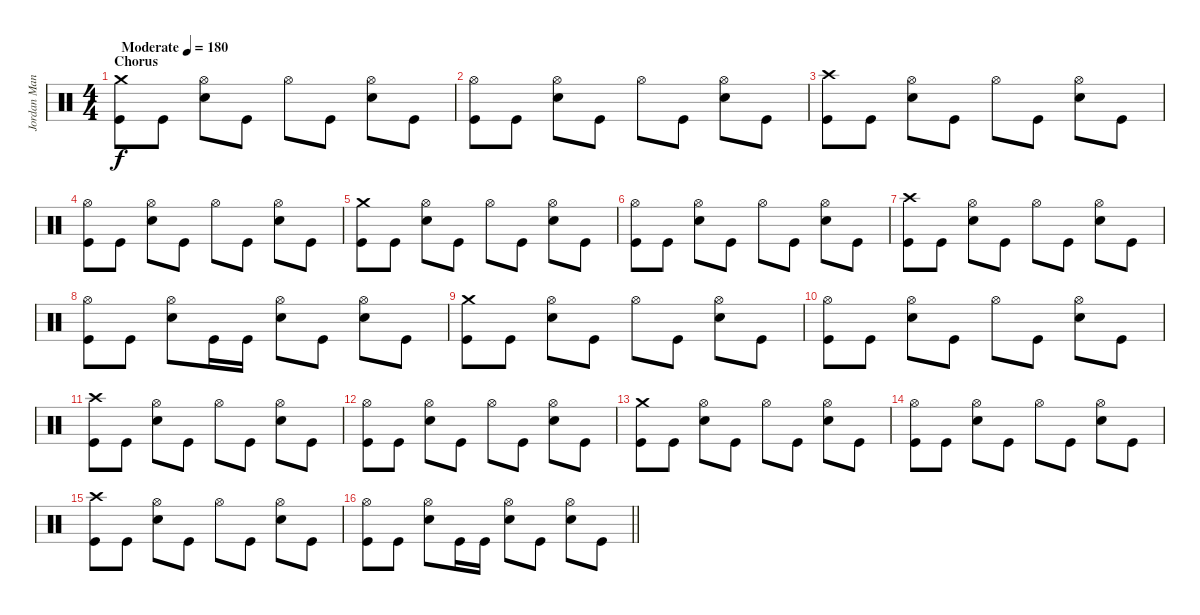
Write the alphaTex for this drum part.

\track ("Jordan Mancino" "Jordan Man") {instrument percussion}
\staff {score}
\articulation defaults
\ts (4 4)
\section ("" "Chorus")
\tempo (180 "Moderate")
\clef neutral
\ks c
("Crash medium (hit)" "Kick (hit)").8{dy f} "Kick (hit)".8 ("Hi-Hat (open)" "Snare (hit) 2").8 "Kick (hit)".8 "Hi-Hat (open)".8 "Kick (hit)".8 ("Hi-Hat (open)" "Snare (hit) 2").8 "Kick (hit)".8 |
("Hi-Hat (open)" "Kick (hit)").8 "Kick (hit)".8 ("Hi-Hat (open)" "Snare (hit) 2").8 "Kick (hit)".8 "Hi-Hat (open)".8 "Kick (hit)".8 ("Hi-Hat (open)" "Snare (hit) 2").8 "Kick (hit)".8 |
("Crash high (hit)" "Kick (hit)").8 "Kick (hit)".8 ("Hi-Hat (open)" "Snare (hit) 2").8 "Kick (hit)".8 "Hi-Hat (open)".8 "Kick (hit)".8 ("Hi-Hat (open)" "Snare (hit) 2").8 "Kick (hit)".8 |
("Hi-Hat (open)" "Kick (hit)").8 "Kick (hit)".8 ("Hi-Hat (open)" "Snare (hit) 2").8 "Kick (hit)".8 "Hi-Hat (open)".8 "Kick (hit)".8 ("Hi-Hat (open)" "Snare (hit) 2").8 "Kick (hit)".8 |
("Crash medium (hit)" "Kick (hit)").8 "Kick (hit)".8 ("Hi-Hat (open)" "Snare (hit) 2").8 "Kick (hit)".8 "Hi-Hat (open)".8 "Kick (hit)".8 ("Hi-Hat (open)" "Snare (hit) 2").8 "Kick (hit)".8 |
("Hi-Hat (open)" "Kick (hit)").8 "Kick (hit)".8 ("Hi-Hat (open)" "Snare (hit) 2").8 "Kick (hit)".8 "Hi-Hat (open)".8 "Kick (hit)".8 ("Hi-Hat (open)" "Snare (hit) 2").8 "Kick (hit)".8 |
("Crash high (hit)" "Kick (hit)").8 "Kick (hit)".8 ("Hi-Hat (open)" "Snare (hit) 2").8 "Kick (hit)".8 "Hi-Hat (open)".8 "Kick (hit)".8 ("Hi-Hat (open)" "Snare (hit) 2").8 "Kick (hit)".8 |
("Hi-Hat (open)" "Kick (hit)").8 "Kick (hit)".8 ("Hi-Hat (open)" "Snare (hit) 2").8 "Kick (hit)".16 "Kick (hit)".16 ("Hi-Hat (open)" "Snare (hit) 2").8 "Kick (hit)".8 ("Hi-Hat (open)" "Snare (hit) 2").8 "Kick (hit)".8 |
("Crash medium (hit)" "Kick (hit)").8 "Kick (hit)".8 ("Hi-Hat (open)" "Snare (hit) 2").8 "Kick (hit)".8 "Hi-Hat (open)".8 "Kick (hit)".8 ("Hi-Hat (open)" "Snare (hit) 2").8 "Kick (hit)".8 |
("Hi-Hat (open)" "Kick (hit)").8 "Kick (hit)".8 ("Hi-Hat (open)" "Snare (hit) 2").8 "Kick (hit)".8 "Hi-Hat (open)".8 "Kick (hit)".8 ("Hi-Hat (open)" "Snare (hit) 2").8 "Kick (hit)".8 |
("Crash high (hit)" "Kick (hit)").8 "Kick (hit)".8 ("Hi-Hat (open)" "Snare (hit) 2").8 "Kick (hit)".8 "Hi-Hat (open)".8 "Kick (hit)".8 ("Hi-Hat (open)" "Snare (hit) 2").8 "Kick (hit)".8 |
("Hi-Hat (open)" "Kick (hit)").8 "Kick (hit)".8 ("Hi-Hat (open)" "Snare (hit) 2").8 "Kick (hit)".8 "Hi-Hat (open)".8 "Kick (hit)".8 ("Hi-Hat (open)" "Snare (hit) 2").8 "Kick (hit)".8 |
("Crash medium (hit)" "Kick (hit)").8 "Kick (hit)".8 ("Hi-Hat (open)" "Snare (hit) 2").8 "Kick (hit)".8 "Hi-Hat (open)".8 "Kick (hit)".8 ("Hi-Hat (open)" "Snare (hit) 2").8 "Kick (hit)".8 |
("Hi-Hat (open)" "Kick (hit)").8 "Kick (hit)".8 ("Hi-Hat (open)" "Snare (hit) 2").8 "Kick (hit)".8 "Hi-Hat (open)".8 "Kick (hit)".8 ("Hi-Hat (open)" "Snare (hit) 2").8 "Kick (hit)".8 |
("Crash high (hit)" "Kick (hit)").8 "Kick (hit)".8 ("Hi-Hat (open)" "Snare (hit) 2").8 "Kick (hit)".8 "Hi-Hat (open)".8 "Kick (hit)".8 ("Hi-Hat (open)" "Snare (hit) 2").8 "Kick (hit)".8 |
\barLineRight lightlight
("Hi-Hat (open)" "Kick (hit)").8 "Kick (hit)".8 ("Hi-Hat (open)" "Snare (hit) 2").8 "Kick (hit)".16 "Kick (hit)".16 ("Hi-Hat (open)" "Snare (hit) 2").8 "Kick (hit)".8 ("Hi-Hat (open)" "Snare (hit) 2").8 "Kick (hit)".8
